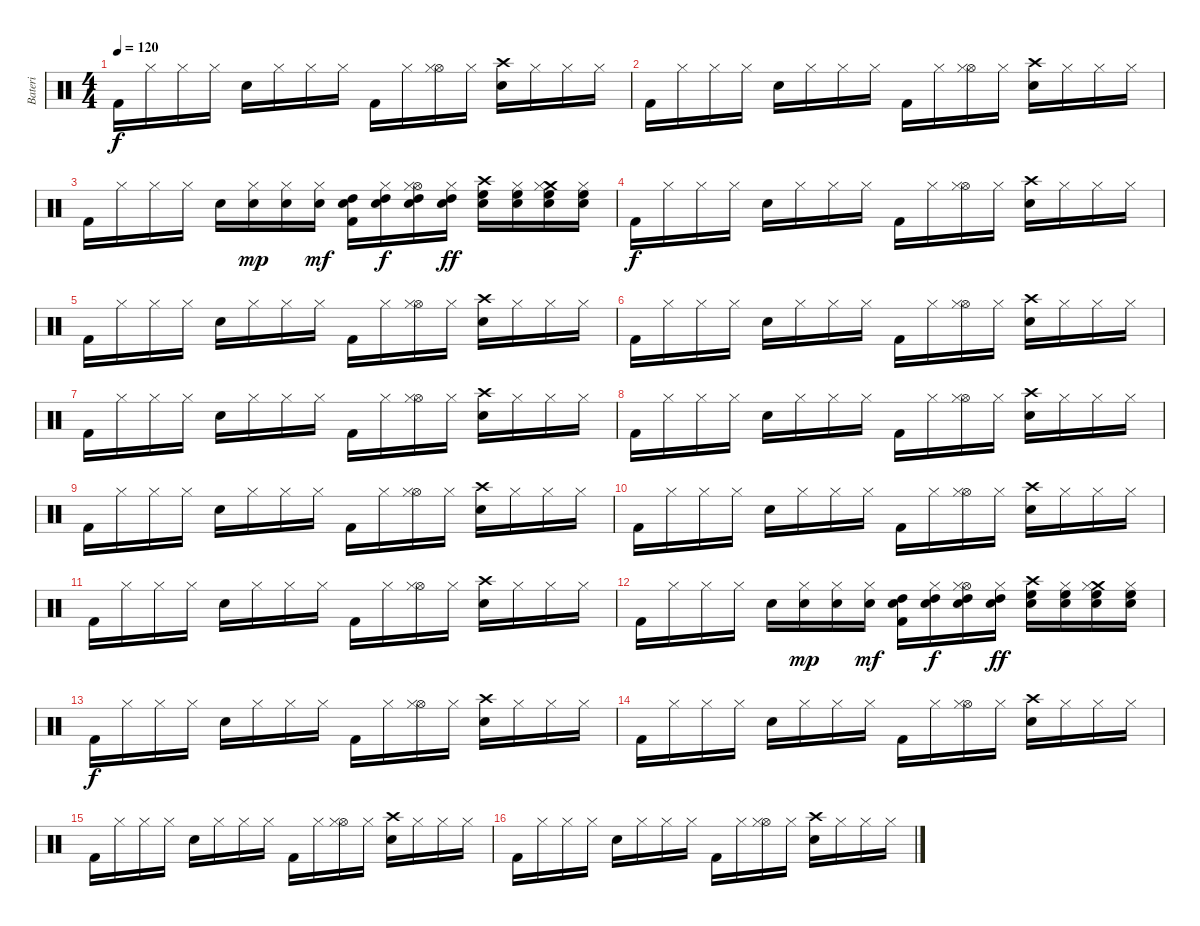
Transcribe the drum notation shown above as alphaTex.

\track ("Bateri" "Bateri") {instrument percussion}
\staff {score}
\articulation defaults
\ts (4 4)
\tempo 120
\clef neutral
\ks c "Kick (hit) 2".16{dy f} "Hi-Hat (closed)".16 "Hi-Hat (closed)".16 "Hi-Hat (closed)".16 "Electric Snare (hit)".16 "Hi-Hat (closed)".16 "Hi-Hat (closed)".16 "Hi-Hat (closed)".16 "Kick (hit) 2".16 "Hi-Hat (closed)".16
("Hi-Hat (open)" "Hi-Hat (closed)").16 "Hi-Hat (closed)".16 ("Crash high (hit)" "Electric Snare (hit)").16 "Hi-Hat (closed)".16 "Hi-Hat (closed)".16 "Hi-Hat (closed)".16 |
"Kick (hit) 2".16 "Hi-Hat (closed)".16 "Hi-Hat (closed)".16 "Hi-Hat (closed)".16 "Electric Snare (hit)".16 "Hi-Hat (closed)".16 "Hi-Hat (closed)".16 "Hi-Hat (closed)".16 "Kick (hit) 2".16 "Hi-Hat (closed)".16 ("Hi-Hat (open)" "Hi-Hat (closed)").16 "Hi-Hat (closed)".16 ("Crash high (hit)" "Electric Snare (hit)").16 "Hi-Hat (closed)".16 "Hi-Hat (closed)".16 "Hi-Hat (closed)".16 |
"Kick (hit) 2".16 "Hi-Hat (closed)".16 "Hi-Hat (closed)".16 "Hi-Hat (closed)".16 "Electric Snare (hit)".16 ("Hi-Hat (closed)" "Electric Snare (hit)").16{dy mp} ("Hi-Hat (closed)" "Electric Snare (hit)").16 ("Hi-Hat (closed)" "Electric Snare (hit)").16{dy mf} ("Kick (hit) 2" "Electric Snare (hit)" "High Tom (hit)").16 ("Hi-Hat (closed)" "Electric Snare (hit)" "High Tom (hit)").16{dy f} ("Hi-Hat (open)" "Hi-Hat (closed)" "Electric Snare (hit)" "High Tom (hit)").16 ("Hi-Hat (closed)" "Electric Snare (hit)" "High Tom (hit)").16{dy ff} ("Crash high (hit)" "Electric Snare (hit)" "High Floor Tom (hit)").16 ("Electric Snare (hit)" "Hi-Hat (closed)" "High Floor Tom (hit)").16 ("Crash medium (hit)" "Hi-Hat (closed)" "High Floor Tom (hit)" "Electric Snare (hit)").16 ("Electric Snare (hit)" "Hi-Hat (closed)" "High Floor Tom (hit)").16 |
"Kick (hit) 2".16{dy f} "Hi-Hat (closed)".16 "Hi-Hat (closed)".16 "Hi-Hat (closed)".16 "Electric Snare (hit)".16 "Hi-Hat (closed)".16 "Hi-Hat (closed)".16 "Hi-Hat (closed)".16 "Kick (hit) 2".16 "Hi-Hat (closed)".16 ("Hi-Hat (open)" "Hi-Hat (closed)").16 "Hi-Hat (closed)".16 ("Crash high (hit)" "Electric Snare (hit)").16 "Hi-Hat (closed)".16 "Hi-Hat (closed)".16 "Hi-Hat (closed)".16 |
"Kick (hit) 2".16 "Hi-Hat (closed)".16 "Hi-Hat (closed)".16 "Hi-Hat (closed)".16 "Electric Snare (hit)".16 "Hi-Hat (closed)".16 "Hi-Hat (closed)".16 "Hi-Hat (closed)".16 "Kick (hit) 2".16 "Hi-Hat (closed)".16 ("Hi-Hat (open)" "Hi-Hat (closed)").16 "Hi-Hat (closed)".16 ("Crash high (hit)" "Electric Snare (hit)").16 "Hi-Hat (closed)".16 "Hi-Hat (closed)".16 "Hi-Hat (closed)".16 |
"Kick (hit) 2".16 "Hi-Hat (closed)".16 "Hi-Hat (closed)".16 "Hi-Hat (closed)".16 "Electric Snare (hit)".16 "Hi-Hat (closed)".16 "Hi-Hat (closed)".16 "Hi-Hat (closed)".16 "Kick (hit) 2".16 "Hi-Hat (closed)".16 ("Hi-Hat (open)" "Hi-Hat (closed)").16 "Hi-Hat (closed)".16 ("Crash high (hit)" "Electric Snare (hit)").16 "Hi-Hat (closed)".16 "Hi-Hat (closed)".16 "Hi-Hat (closed)".16 |
"Kick (hit) 2".16 "Hi-Hat (closed)".16 "Hi-Hat (closed)".16 "Hi-Hat (closed)".16 "Electric Snare (hit)".16 "Hi-Hat (closed)".16 "Hi-Hat (closed)".16 "Hi-Hat (closed)".16 "Kick (hit) 2".16 "Hi-Hat (closed)".16 ("Hi-Hat (open)" "Hi-Hat (closed)").16 "Hi-Hat (closed)".16 ("Crash high (hit)" "Electric Snare (hit)").16 "Hi-Hat (closed)".16 "Hi-Hat (closed)".16 "Hi-Hat (closed)".16 |
"Kick (hit) 2".16 "Hi-Hat (closed)".16 "Hi-Hat (closed)".16 "Hi-Hat (closed)".16 "Electric Snare (hit)".16 "Hi-Hat (closed)".16 "Hi-Hat (closed)".16 "Hi-Hat (closed)".16 "Kick (hit) 2".16 "Hi-Hat (closed)".16 ("Hi-Hat (open)" "Hi-Hat (closed)").16 "Hi-Hat (closed)".16 ("Crash high (hit)" "Electric Snare (hit)").16 "Hi-Hat (closed)".16 "Hi-Hat (closed)".16 "Hi-Hat (closed)".16 |
"Kick (hit) 2".16 "Hi-Hat (closed)".16 "Hi-Hat (closed)".16 "Hi-Hat (closed)".16 "Electric Snare (hit)".16 "Hi-Hat (closed)".16 "Hi-Hat (closed)".16 "Hi-Hat (closed)".16 "Kick (hit) 2".16 "Hi-Hat (closed)".16 ("Hi-Hat (open)" "Hi-Hat (closed)").16 "Hi-Hat (closed)".16 ("Crash high (hit)" "Electric Snare (hit)").16 "Hi-Hat (closed)".16 "Hi-Hat (closed)".16 "Hi-Hat (closed)".16 |
"Kick (hit) 2".16 "Hi-Hat (closed)".16 "Hi-Hat (closed)".16 "Hi-Hat (closed)".16 "Electric Snare (hit)".16 "Hi-Hat (closed)".16 "Hi-Hat (closed)".16 "Hi-Hat (closed)".16 "Kick (hit) 2".16 "Hi-Hat (closed)".16 ("Hi-Hat (open)" "Hi-Hat (closed)").16 "Hi-Hat (closed)".16 ("Crash high (hit)" "Electric Snare (hit)").16 "Hi-Hat (closed)".16 "Hi-Hat (closed)".16 "Hi-Hat (closed)".16 |
"Kick (hit) 2".16 "Hi-Hat (closed)".16 "Hi-Hat (closed)".16 "Hi-Hat (closed)".16 "Electric Snare (hit)".16 "Hi-Hat (closed)".16 "Hi-Hat (closed)".16 "Hi-Hat (closed)".16 "Kick (hit) 2".16 "Hi-Hat (closed)".16 ("Hi-Hat (open)" "Hi-Hat (closed)").16 "Hi-Hat (closed)".16 ("Crash high (hit)" "Electric Snare (hit)").16 "Hi-Hat (closed)".16 "Hi-Hat (closed)".16 "Hi-Hat (closed)".16 |
"Kick (hit) 2".16 "Hi-Hat (closed)".16 "Hi-Hat (closed)".16 "Hi-Hat (closed)".16 "Electric Snare (hit)".16 ("Hi-Hat (closed)" "Electric Snare (hit)").16{dy mp} ("Hi-Hat (closed)" "Electric Snare (hit)").16 ("Hi-Hat (closed)" "Electric Snare (hit)").16{dy mf} ("Kick (hit) 2" "Electric Snare (hit)" "High Tom (hit)").16 ("Hi-Hat (closed)" "Electric Snare (hit)" "High Tom (hit)").16{dy f} ("Hi-Hat (open)" "Hi-Hat (closed)" "Electric Snare (hit)" "High Tom (hit)").16 ("Hi-Hat (closed)" "Electric Snare (hit)" "High Tom (hit)").16{dy ff} ("Crash high (hit)" "Electric Snare (hit)" "High Floor Tom (hit)").16 ("Electric Snare (hit)" "Hi-Hat (closed)" "High Floor Tom (hit)").16 ("Crash medium (hit)" "Hi-Hat (closed)" "High Floor Tom (hit)" "Electric Snare (hit)").16 ("Electric Snare (hit)" "Hi-Hat (closed)" "High Floor Tom (hit)").16 |
"Kick (hit) 2".16{dy f} "Hi-Hat (closed)".16 "Hi-Hat (closed)".16 "Hi-Hat (closed)".16 "Electric Snare (hit)".16 "Hi-Hat (closed)".16 "Hi-Hat (closed)".16 "Hi-Hat (closed)".16 "Kick (hit) 2".16 "Hi-Hat (closed)".16 ("Hi-Hat (open)" "Hi-Hat (closed)").16 "Hi-Hat (closed)".16 ("Crash high (hit)" "Electric Snare (hit)").16 "Hi-Hat (closed)".16 "Hi-Hat (closed)".16 "Hi-Hat (closed)".16 |
"Kick (hit) 2".16 "Hi-Hat (closed)".16 "Hi-Hat (closed)".16 "Hi-Hat (closed)".16 "Electric Snare (hit)".16 "Hi-Hat (closed)".16 "Hi-Hat (closed)".16 "Hi-Hat (closed)".16 "Kick (hit) 2".16 "Hi-Hat (closed)".16 ("Hi-Hat (open)" "Hi-Hat (closed)").16 "Hi-Hat (closed)".16 ("Crash high (hit)" "Electric Snare (hit)").16 "Hi-Hat (closed)".16 "Hi-Hat (closed)".16 "Hi-Hat (closed)".16 |
"Kick (hit) 2".16 "Hi-Hat (closed)".16 "Hi-Hat (closed)".16 "Hi-Hat (closed)".16 "Electric Snare (hit)".16 "Hi-Hat (closed)".16 "Hi-Hat (closed)".16 "Hi-Hat (closed)".16 "Kick (hit) 2".16 "Hi-Hat (closed)".16 ("Hi-Hat (open)" "Hi-Hat (closed)").16 "Hi-Hat (closed)".16 ("Crash high (hit)" "Electric Snare (hit)").16 "Hi-Hat (closed)".16 "Hi-Hat (closed)".16 "Hi-Hat (closed)".16 |
"Kick (hit) 2".16 "Hi-Hat (closed)".16 "Hi-Hat (closed)".16 "Hi-Hat (closed)".16 "Electric Snare (hit)".16 "Hi-Hat (closed)".16 "Hi-Hat (closed)".16 "Hi-Hat (closed)".16 "Kick (hit) 2".16 "Hi-Hat (closed)".16 ("Hi-Hat (open)" "Hi-Hat (closed)").16 "Hi-Hat (closed)".16 ("Crash high (hit)" "Electric Snare (hit)").16 "Hi-Hat (closed)".16 "Hi-Hat (closed)".16 "Hi-Hat (closed)".16
